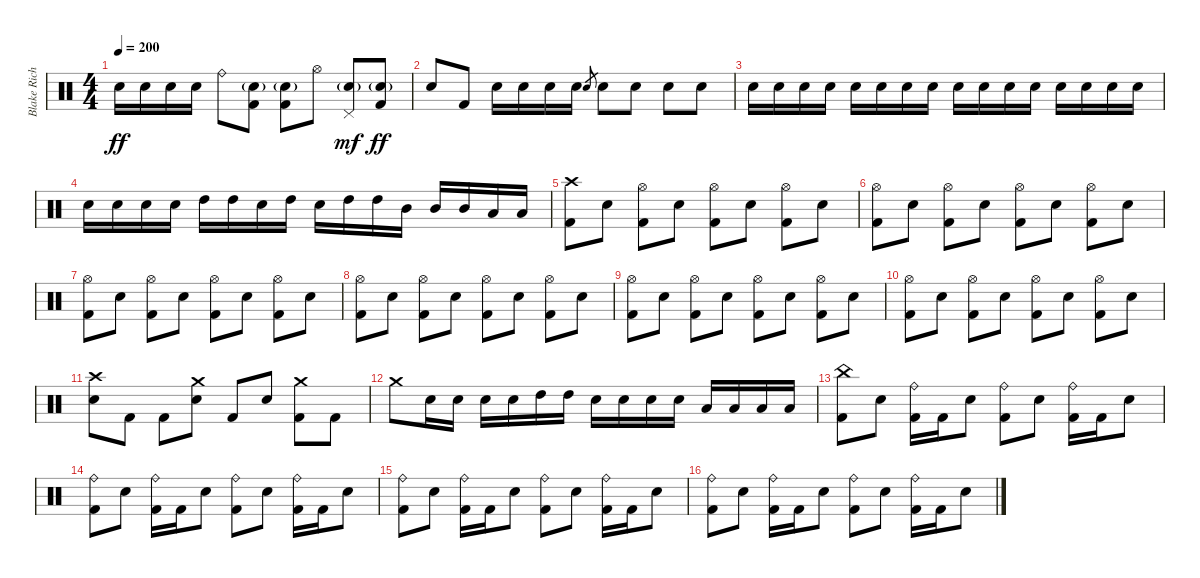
\track ("Blake Richardson" "Blake Rich") {instrument percussion}
\staff {score}
\articulation defaults
\ts (4 4)
\tempo 200
\clef neutral
\ks c "Electric Snare (hit)".16{dy ff} "Electric Snare (hit)".16 "Electric Snare (hit)".16 "Electric Snare (hit)".16 "Ride (bell)".8
("Electric Snare (hit)"{g} "Kick (hit) 2").8 ("Electric Snare (hit)"{g} "Kick (hit) 2").8 "Hi-Hat (open)".8 ("Pedal Hi-Hat (hit)" "Electric Snare (hit)"{g}).8{dy mf} ("Electric Snare (hit)"{g} "Kick (hit) 2").8{dy ff} |
"Electric Snare (hit)".8 "Kick (hit) 2".8 "Electric Snare (hit)".16 "Electric Snare (hit)".16 "Electric Snare (hit)".16 "Electric Snare (hit)".16 "Electric Snare (hit)".8{gr} "Electric Snare (hit)".8 "Electric Snare (hit)".8 "Electric Snare (hit)".8 "Electric Snare (hit)".8 |
"Electric Snare (hit)".16 "Electric Snare (hit)".16 "Electric Snare (hit)".16 "Electric Snare (hit)".16 "Electric Snare (hit)".16 "Electric Snare (hit)".16 "Electric Snare (hit)".16 "Electric Snare (hit)".16 "Electric Snare (hit)".16 "Electric Snare (hit)".16 "Electric Snare (hit)".16 "Electric Snare (hit)".16 "Electric Snare (hit)".16 "Electric Snare (hit)".16 "Electric Snare (hit)".16 "Electric Snare (hit)".16 |
"Electric Snare (hit)".16 "Electric Snare (hit)".16 "Electric Snare (hit)".16 "Electric Snare (hit)".16 "High Tom (hit)".16 "High Tom (hit)".16 "Electric Snare (hit)".16 "High Tom (hit)".16 "Electric Snare (hit)".16 "High Tom (hit)".16 "High Tom (hit)".16 "Mid Tom (hit)".16 "Mid Tom (hit)".16 "Mid Tom (hit)".16 "Low Tom (hit)".16 "Low Tom (hit)".16 |
("Crash high (hit)" "Kick (hit) 2").8 "Electric Snare (hit)".8 ("Hi-Hat (open)" "Kick (hit) 2").8 "Electric Snare (hit)".8 ("Hi-Hat (open)" "Kick (hit) 2").8 "Electric Snare (hit)".8 ("Hi-Hat (open)" "Kick (hit) 2").8 "Electric Snare (hit)".8 |
("Hi-Hat (open)" "Kick (hit) 2").8 "Electric Snare (hit)".8 ("Hi-Hat (open)" "Kick (hit) 2").8 "Electric Snare (hit)".8 ("Hi-Hat (open)" "Kick (hit) 2").8 "Electric Snare (hit)".8 ("Hi-Hat (open)" "Kick (hit) 2").8 "Electric Snare (hit)".8 |
("Hi-Hat (open)" "Kick (hit) 2").8 "Electric Snare (hit)".8 ("Hi-Hat (open)" "Kick (hit) 2").8 "Electric Snare (hit)".8 ("Hi-Hat (open)" "Kick (hit) 2").8 "Electric Snare (hit)".8 ("Hi-Hat (open)" "Kick (hit) 2").8 "Electric Snare (hit)".8 |
("Hi-Hat (open)" "Kick (hit) 2").8 "Electric Snare (hit)".8 ("Hi-Hat (open)" "Kick (hit) 2").8 "Electric Snare (hit)".8 ("Hi-Hat (open)" "Kick (hit) 2").8 "Electric Snare (hit)".8 ("Hi-Hat (open)" "Kick (hit) 2").8 "Electric Snare (hit)".8 |
("Hi-Hat (open)" "Kick (hit) 2").8 "Electric Snare (hit)".8 ("Hi-Hat (open)" "Kick (hit) 2").8 "Electric Snare (hit)".8 ("Hi-Hat (open)" "Kick (hit) 2").8 "Electric Snare (hit)".8 ("Hi-Hat (open)" "Kick (hit) 2").8 "Electric Snare (hit)".8 |
("Hi-Hat (open)" "Kick (hit) 2").8 "Electric Snare (hit)".8 ("Hi-Hat (open)" "Kick (hit) 2").8 "Electric Snare (hit)".8 ("Hi-Hat (open)" "Kick (hit) 2").8 "Electric Snare (hit)".8 ("Hi-Hat (open)" "Kick (hit) 2").8 "Electric Snare (hit)".8 |
("Crash high (hit)" "Electric Snare (hit)").8 "Kick (hit) 2".8 "Kick (hit) 2".8 ("Crash medium (hit)" "Electric Snare (hit)").8 "Kick (hit) 2".8 "Electric Snare (hit)".8 ("Crash medium (hit)" "Kick (hit) 2").8 "Kick (hit) 2".8 |
"Crash medium (hit)".8 "Electric Snare (hit)".16 "Electric Snare (hit)".16 "Electric Snare (hit)".16 "Electric Snare (hit)".16 "High Tom (hit)".16 "High Tom (hit)".16 "Electric Snare (hit)".16 "Electric Snare (hit)".16 "Electric Snare (hit)".16 "Electric Snare (hit)".16 "Low Tom (hit)".16 "Low Tom (hit)".16 "Low Tom (hit)".16 "Low Tom (hit)".16 |
("China (hit)" "Kick (hit) 2").8 "Electric Snare (hit)".8 ("Ride (bell)" "Kick (hit) 2").16 "Kick (hit) 2".16 "Electric Snare (hit)".8 ("Ride (bell)" "Kick (hit) 2").8 "Electric Snare (hit)".8 ("Ride (bell)" "Kick (hit) 2").16 "Kick (hit) 2".16 "Electric Snare (hit)".8 |
("Ride (bell)" "Kick (hit) 2").8 "Electric Snare (hit)".8 ("Ride (bell)" "Kick (hit) 2").16 "Kick (hit) 2".16 "Electric Snare (hit)".8 ("Ride (bell)" "Kick (hit) 2").8 "Electric Snare (hit)".8 ("Ride (bell)" "Kick (hit) 2").16 "Kick (hit) 2".16 "Electric Snare (hit)".8 |
("Ride (bell)" "Kick (hit) 2").8 "Electric Snare (hit)".8 ("Ride (bell)" "Kick (hit) 2").16 "Kick (hit) 2".16 "Electric Snare (hit)".8 ("Ride (bell)" "Kick (hit) 2").8 "Electric Snare (hit)".8 ("Ride (bell)" "Kick (hit) 2").16 "Kick (hit) 2".16 "Electric Snare (hit)".8 |
("Ride (bell)" "Kick (hit) 2").8 "Electric Snare (hit)".8 ("Ride (bell)" "Kick (hit) 2").16 "Kick (hit) 2".16 "Electric Snare (hit)".8 ("Ride (bell)" "Kick (hit) 2").8 "Electric Snare (hit)".8 ("Ride (bell)" "Kick (hit) 2").16 "Kick (hit) 2".16 "Electric Snare (hit)".8
